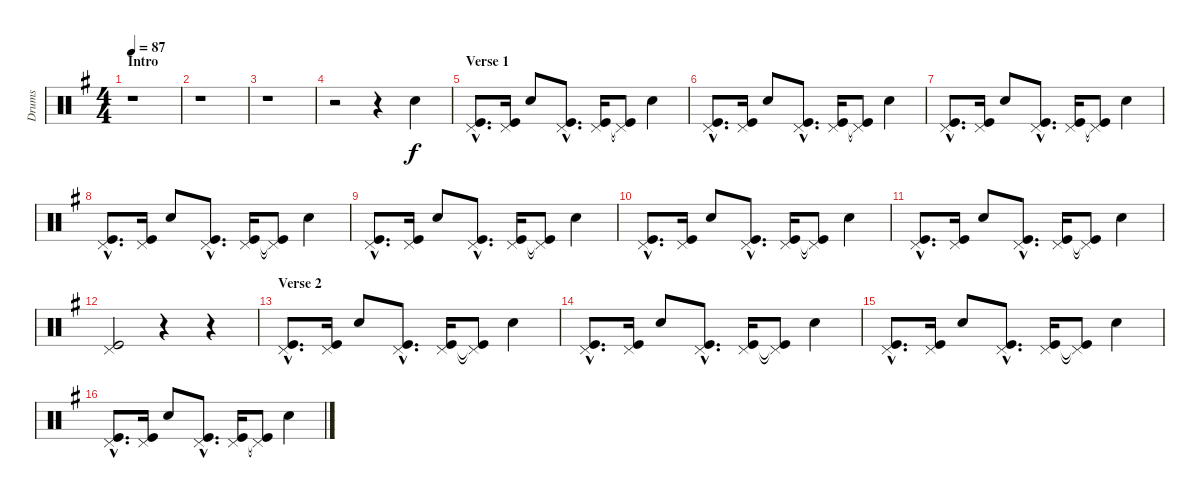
\track ("Drums" "Drums") {instrument percussion}
\staff {score}
\articulation defaults
\ts (4 4)
\section ("" "Intro")
\tempo 87
\clef neutral
\ks g
r.1{dy f} |
r.1 |
r.1 |
r.2 r.4 "Snare (hit) 2".4 |
\section ("" "Verse 1")
("Kick (hit)"{hac} "Pedal Hi-Hat (hit)"{hac}).8{d} ("Kick (hit)" "Pedal Hi-Hat (hit)").16 "Snare (hit) 2".8 ("Kick (hit)"{hac} "Pedal Hi-Hat (hit)"{hac}).8{d} ("Kick (hit)" "Pedal Hi-Hat (hit)").16 ("Kick (hit)"{t} "Pedal Hi-Hat (hit)"{t}).8 "Snare (hit) 2".4 |
("Kick (hit)"{hac} "Pedal Hi-Hat (hit)"{hac}).8{d} ("Kick (hit)" "Pedal Hi-Hat (hit)").16 "Snare (hit) 2".8 ("Kick (hit)"{hac} "Pedal Hi-Hat (hit)"{hac}).8{d} ("Kick (hit)" "Pedal Hi-Hat (hit)").16 ("Kick (hit)"{t} "Pedal Hi-Hat (hit)"{t}).8 "Snare (hit) 2".4 |
("Kick (hit)"{hac} "Pedal Hi-Hat (hit)"{hac}).8{d} ("Kick (hit)" "Pedal Hi-Hat (hit)").16 "Snare (hit) 2".8 ("Kick (hit)"{hac} "Pedal Hi-Hat (hit)"{hac}).8{d} ("Kick (hit)" "Pedal Hi-Hat (hit)").16 ("Kick (hit)"{t} "Pedal Hi-Hat (hit)"{t}).8 "Snare (hit) 2".4 |
("Kick (hit)"{hac} "Pedal Hi-Hat (hit)"{hac}).8{d} ("Kick (hit)" "Pedal Hi-Hat (hit)").16 "Snare (hit) 2".8 ("Kick (hit)"{hac} "Pedal Hi-Hat (hit)"{hac}).8{d} ("Kick (hit)" "Pedal Hi-Hat (hit)").16 ("Kick (hit)"{t} "Pedal Hi-Hat (hit)"{t}).8 "Snare (hit) 2".4 |
("Kick (hit)"{hac} "Pedal Hi-Hat (hit)"{hac}).8{d} ("Kick (hit)" "Pedal Hi-Hat (hit)").16 "Snare (hit) 2".8 ("Kick (hit)"{hac} "Pedal Hi-Hat (hit)"{hac}).8{d} ("Kick (hit)" "Pedal Hi-Hat (hit)").16 ("Kick (hit)"{t} "Pedal Hi-Hat (hit)"{t}).8 "Snare (hit) 2".4 |
("Kick (hit)"{hac} "Pedal Hi-Hat (hit)"{hac}).8{d} ("Kick (hit)" "Pedal Hi-Hat (hit)").16 "Snare (hit) 2".8 ("Kick (hit)"{hac} "Pedal Hi-Hat (hit)"{hac}).8{d} ("Kick (hit)" "Pedal Hi-Hat (hit)").16 ("Kick (hit)"{t} "Pedal Hi-Hat (hit)"{t}).8 "Snare (hit) 2".4 |
("Kick (hit)"{hac} "Pedal Hi-Hat (hit)"{hac}).8{d} ("Kick (hit)" "Pedal Hi-Hat (hit)").16 "Snare (hit) 2".8 ("Kick (hit)"{hac} "Pedal Hi-Hat (hit)"{hac}).8{d} ("Kick (hit)" "Pedal Hi-Hat (hit)").16 ("Kick (hit)"{t} "Pedal Hi-Hat (hit)"{t}).8 "Snare (hit) 2".4 |
("Kick (hit)" "Pedal Hi-Hat (hit)").2 r.4 r.4 |
\section ("" "Verse 2")
("Kick (hit)"{hac} "Pedal Hi-Hat (hit)"{hac}).8{d} ("Kick (hit)" "Pedal Hi-Hat (hit)").16 "Snare (hit) 2".8 ("Kick (hit)"{hac} "Pedal Hi-Hat (hit)"{hac}).8{d} ("Kick (hit)" "Pedal Hi-Hat (hit)").16 ("Kick (hit)"{t} "Pedal Hi-Hat (hit)"{t}).8 "Snare (hit) 2".4 |
("Kick (hit)"{hac} "Pedal Hi-Hat (hit)"{hac}).8{d} ("Kick (hit)" "Pedal Hi-Hat (hit)").16 "Snare (hit) 2".8 ("Kick (hit)"{hac} "Pedal Hi-Hat (hit)"{hac}).8{d} ("Kick (hit)" "Pedal Hi-Hat (hit)").16 ("Kick (hit)"{t} "Pedal Hi-Hat (hit)"{t}).8 "Snare (hit) 2".4 |
("Kick (hit)"{hac} "Pedal Hi-Hat (hit)"{hac}).8{d} ("Kick (hit)" "Pedal Hi-Hat (hit)").16 "Snare (hit) 2".8 ("Kick (hit)"{hac} "Pedal Hi-Hat (hit)"{hac}).8{d} ("Kick (hit)" "Pedal Hi-Hat (hit)").16 ("Kick (hit)"{t} "Pedal Hi-Hat (hit)"{t}).8 "Snare (hit) 2".4 |
("Kick (hit)"{hac} "Pedal Hi-Hat (hit)"{hac}).8{d} ("Kick (hit)" "Pedal Hi-Hat (hit)").16 "Snare (hit) 2".8 ("Kick (hit)"{hac} "Pedal Hi-Hat (hit)"{hac}).8{d} ("Kick (hit)" "Pedal Hi-Hat (hit)").16 ("Kick (hit)"{t} "Pedal Hi-Hat (hit)"{t}).8 "Snare (hit) 2".4
